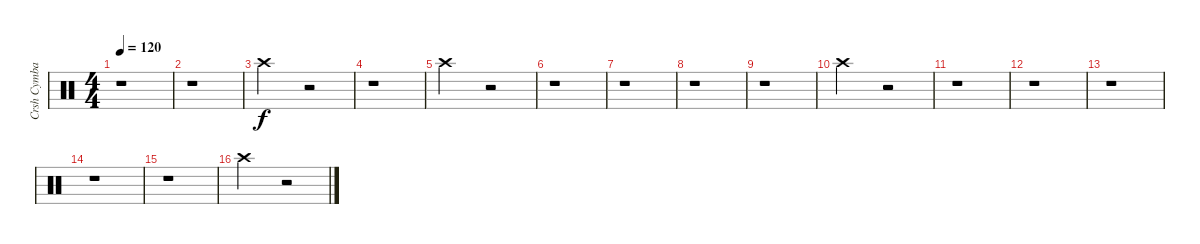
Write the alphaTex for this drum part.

\track ("Crsh Cymbal         " "Crsh Cymba") {instrument percussion}
\staff {score}
\articulation defaults
\ts (4 4)
\tempo 120
\clef neutral
\ks c
r.1{dy f} |
r.1 |
"Crash high (hit)".2 r.2 |
r.1 |
"Crash high (hit)".2 r.2 |
r.1 |
r.1 |
r.1 |
r.1 |
"Crash high (hit)".2 r.2 |
r.1 |
r.1 |
r.1 |
r.1 |
r.1 |
"Crash high (hit)".2 r.2
